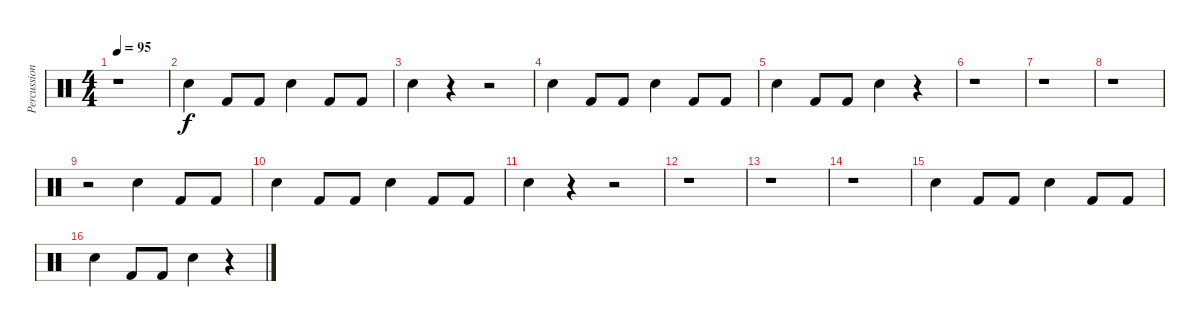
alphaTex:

\track ("Percussions" "Percussion") {instrument percussion}
\staff {score}
\articulation defaults
\ts (4 4)
\tempo 95
\clef neutral
\ks c
r.1{dy f} |
"Snare (hit) 2".4 "Kick (hit) 2".8 "Kick (hit) 2".8 "Snare (hit) 2".4 "Kick (hit) 2".8 "Kick (hit) 2".8 |
"Snare (hit) 2".4 r.4 r.2 |
"Snare (hit) 2".4 "Kick (hit) 2".8 "Kick (hit) 2".8 "Snare (hit) 2".4 "Kick (hit) 2".8 "Kick (hit) 2".8 |
"Snare (hit) 2".4 "Kick (hit) 2".8 "Kick (hit) 2".8 "Snare (hit) 2".4 r.4 |
r.1 |
r.1 |
r.1 |
r.2 "Snare (hit) 2".4 "Kick (hit) 2".8 "Kick (hit) 2".8 |
"Snare (hit) 2".4 "Kick (hit) 2".8 "Kick (hit) 2".8 "Snare (hit) 2".4 "Kick (hit) 2".8 "Kick (hit) 2".8 |
"Snare (hit) 2".4 r.4 r.2 |
r.1 |
r.1 |
r.1 |
"Snare (hit) 2".4 "Kick (hit) 2".8 "Kick (hit) 2".8 "Snare (hit) 2".4 "Kick (hit) 2".8 "Kick (hit) 2".8 |
"Snare (hit) 2".4 "Kick (hit) 2".8 "Kick (hit) 2".8 "Snare (hit) 2".4 r.4
